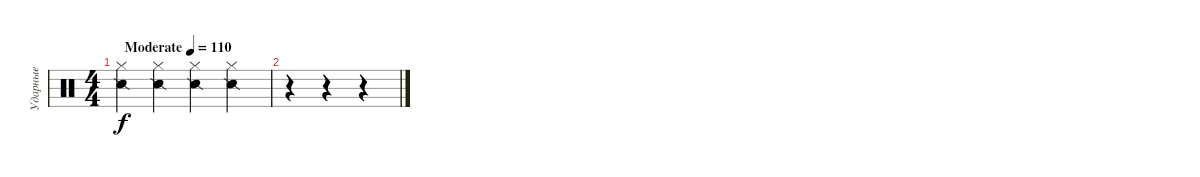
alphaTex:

\track ("Ударные" "Ударные") {instrument percussion}
\staff {score}
\articulation defaults
\ts (4 4)
\tempo (110 "Moderate")
\clef neutral
\ks c
("Hi-Hat (closed)" "Snare (side stick) 2").4{dy f} ("Hi-Hat (closed)" "Snare (side stick) 2").4 ("Hi-Hat (closed)" "Snare (side stick) 2").4 ("Hi-Hat (closed)" "Snare (side stick) 2").4 |
r.4 r.4 r.4
